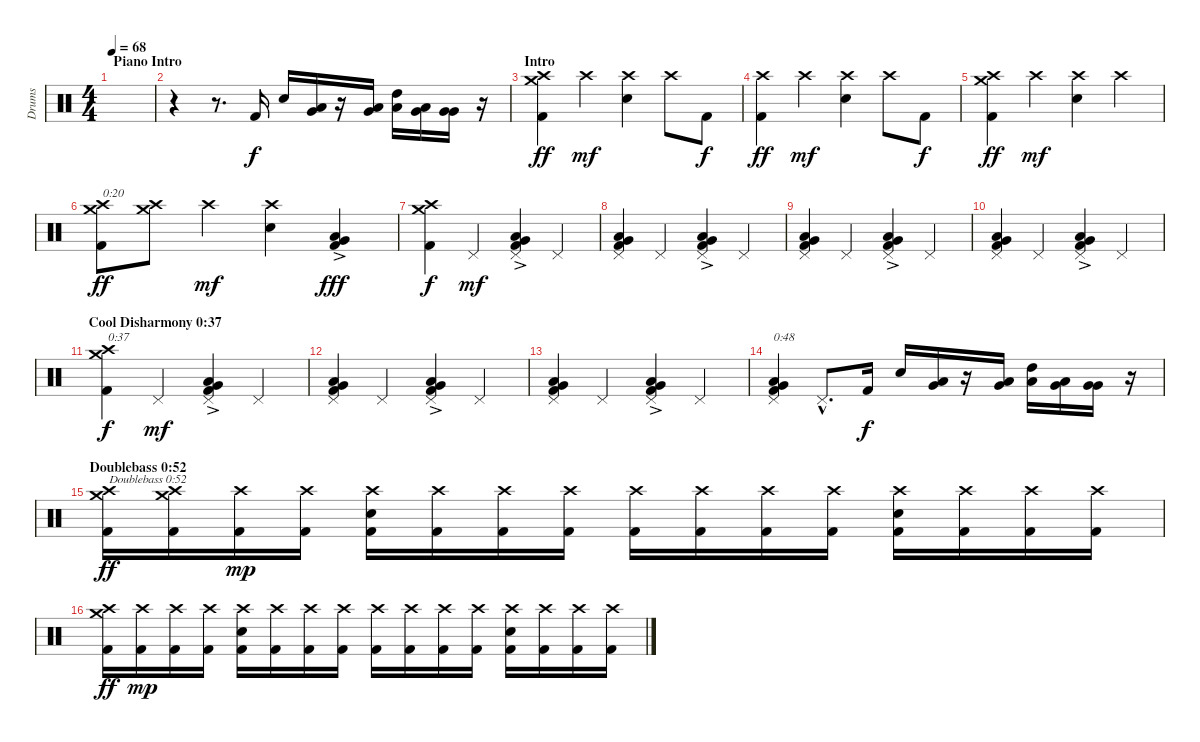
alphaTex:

\track ("Drums" "Drums") {instrument percussion}
\staff {score}
\articulation defaults
\ts (4 4)
\section ("" "Piano Intro")
\tempo 68
\clef neutral
\ks c
|
r.4 r.8{d} "Kick (hit) 2".16 "Electric Snare (hit)".16 ("Very Low Tom (hit)" "Low Tom (hit)").16 r.16 ("Very Low Tom (hit)" "Low Tom (hit)").16 ("Low Tom (hit)" "High Tom (hit)").16 ("Very Low Tom (hit)" "Low Tom (hit)").16 ("Very Low Tom (hit)" "Very Low Tom (hit)").16 r.16 |
\section ("" "Intro")
("Kick (hit) 2" "Crash high (hit)" "Crash medium (hit)").4{dy ff} "Crash high (hit)".4{dy mf} ("Electric Snare (hit)" "Crash high (hit)").4 "Crash high (hit)".8 "Kick (hit) 2".8{dy f} |
("Kick (hit) 2" "Crash high (hit)").4{dy ff} "Crash high (hit)".4{dy mf} ("Electric Snare (hit)" "Crash high (hit)").4 "Crash high (hit)".8 "Kick (hit) 2".8{dy f} |
("Kick (hit) 2" "Crash high (hit)" "Crash medium (hit)").4{dy ff} "Crash high (hit)".4{dy mf} ("Electric Snare (hit)" "Crash high (hit)").4 "Crash high (hit)".4 |
("Kick (hit) 2" "Crash high (hit)" "Crash medium (hit)").8{txt "0:20" dy ff} ("Crash high (hit)" "Crash medium (hit)").8 "Crash high (hit)".4{dy mf} ("Electric Snare (hit)" "Crash high (hit)").4 ("Kick (hit) 2" "Very Low Tom (hit)"{ac} "Low Tom (hit)"{ac}).4{dy fff} |
("Kick (hit) 2" "Crash high (hit)" "Crash medium (hit)").4{dy f} "Pedal Hi-Hat (hit)".4{dy mf} ("Kick (hit) 2" "Very Low Tom (hit)"{ac} "Low Tom (hit)"{ac} "Pedal Hi-Hat (hit)").4 "Pedal Hi-Hat (hit)".4 |
("Kick (hit) 2" "Very Low Tom (hit)" "Low Floor Tom (hit)" "Pedal Hi-Hat (hit)").4 "Pedal Hi-Hat (hit)".4 ("Kick (hit) 2" "Very Low Tom (hit)"{ac} "Low Tom (hit)"{ac} "Pedal Hi-Hat (hit)").4 "Pedal Hi-Hat (hit)".4 |
("Kick (hit) 2" "Very Low Tom (hit)" "Low Floor Tom (hit)" "Pedal Hi-Hat (hit)").4 "Pedal Hi-Hat (hit)".4 ("Kick (hit) 2" "Very Low Tom (hit)"{ac} "Low Tom (hit)"{ac} "Pedal Hi-Hat (hit)").4 "Pedal Hi-Hat (hit)".4 |
("Kick (hit) 2" "Very Low Tom (hit)" "Low Floor Tom (hit)" "Pedal Hi-Hat (hit)").4 "Pedal Hi-Hat (hit)".4 ("Kick (hit) 2" "Very Low Tom (hit)"{ac} "Low Tom (hit)"{ac} "Pedal Hi-Hat (hit)").4 "Pedal Hi-Hat (hit)".4 |
\section ("" "Cool Disharmony 0:37")
("Kick (hit) 2" "Crash high (hit)" "Crash medium (hit)").4{txt "0:37" dy f} "Pedal Hi-Hat (hit)".4{dy mf} ("Kick (hit) 2" "Very Low Tom (hit)"{ac} "Low Tom (hit)"{ac} "Pedal Hi-Hat (hit)").4 "Pedal Hi-Hat (hit)".4 |
("Kick (hit) 2" "Very Low Tom (hit)" "Low Floor Tom (hit)" "Pedal Hi-Hat (hit)").4 "Pedal Hi-Hat (hit)".4 ("Kick (hit) 2" "Very Low Tom (hit)"{ac} "Low Tom (hit)"{ac} "Pedal Hi-Hat (hit)").4 "Pedal Hi-Hat (hit)".4 |
("Kick (hit) 2" "Very Low Tom (hit)" "Low Floor Tom (hit)" "Pedal Hi-Hat (hit)").4 "Pedal Hi-Hat (hit)".4 ("Kick (hit) 2" "Very Low Tom (hit)"{ac} "Low Tom (hit)"{ac} "Pedal Hi-Hat (hit)").4 "Pedal Hi-Hat (hit)".4 |
("Kick (hit) 2" "Very Low Tom (hit)" "Low Floor Tom (hit)" "Pedal Hi-Hat (hit)").4{txt "0:48"} "Pedal Hi-Hat (hit)"{hac}.8{d} "Kick (hit) 2".16{dy f} "Electric Snare (hit)".16 ("Very Low Tom (hit)" "Low Tom (hit)").16 r.16 ("Very Low Tom (hit)" "Low Tom (hit)").16 ("Low Tom (hit)" "High Tom (hit)").16 ("Very Low Tom (hit)" "Low Tom (hit)").16 ("Very Low Tom (hit)" "Very Low Tom (hit)").16 r.16 |
\section ("" "Doublebass 0:52")
("Kick (hit) 2" "Crash high (hit)" "Crash medium (hit)").16{txt "Doublebass 0:52" dy ff} ("Kick (hit) 2" "Crash high (hit)" "Crash medium (hit)").16 ("Kick (hit) 2" "Crash high (hit)").16{dy mp} ("Kick (hit) 2" "Crash high (hit)").16 ("Kick (hit) 2" "Electric Snare (hit)" "Crash high (hit)").16 ("Kick (hit) 2" "Crash high (hit)").16 ("Kick (hit) 2" "Crash high (hit)").16 ("Kick (hit) 2" "Crash high (hit)").16 ("Kick (hit) 2" "Crash high (hit)").16 ("Kick (hit) 2" "Crash high (hit)").16 ("Kick (hit) 2" "Crash high (hit)").16 ("Kick (hit) 2" "Crash high (hit)").16 ("Kick (hit) 2" "Electric Snare (hit)" "Crash high (hit)").16 ("Kick (hit) 2" "Crash high (hit)").16 ("Kick (hit) 2" "Crash high (hit)").16 ("Kick (hit) 2" "Crash high (hit)").16 |
("Kick (hit) 2" "Crash high (hit)" "Crash medium (hit)").16{dy ff} ("Kick (hit) 2" "Crash high (hit)").16{dy mp} ("Kick (hit) 2" "Crash high (hit)").16 ("Kick (hit) 2" "Crash high (hit)").16 ("Kick (hit) 2" "Electric Snare (hit)" "Crash high (hit)").16 ("Kick (hit) 2" "Crash high (hit)").16 ("Kick (hit) 2" "Crash high (hit)").16 ("Kick (hit) 2" "Crash high (hit)").16 ("Kick (hit) 2" "Crash high (hit)").16 ("Kick (hit) 2" "Crash high (hit)").16 ("Kick (hit) 2" "Crash high (hit)").16 ("Kick (hit) 2" "Crash high (hit)").16 ("Kick (hit) 2" "Electric Snare (hit)" "Crash high (hit)").16 ("Kick (hit) 2" "Crash high (hit)").16 ("Kick (hit) 2" "Crash high (hit)").16 ("Kick (hit) 2" "Crash high (hit)").16
